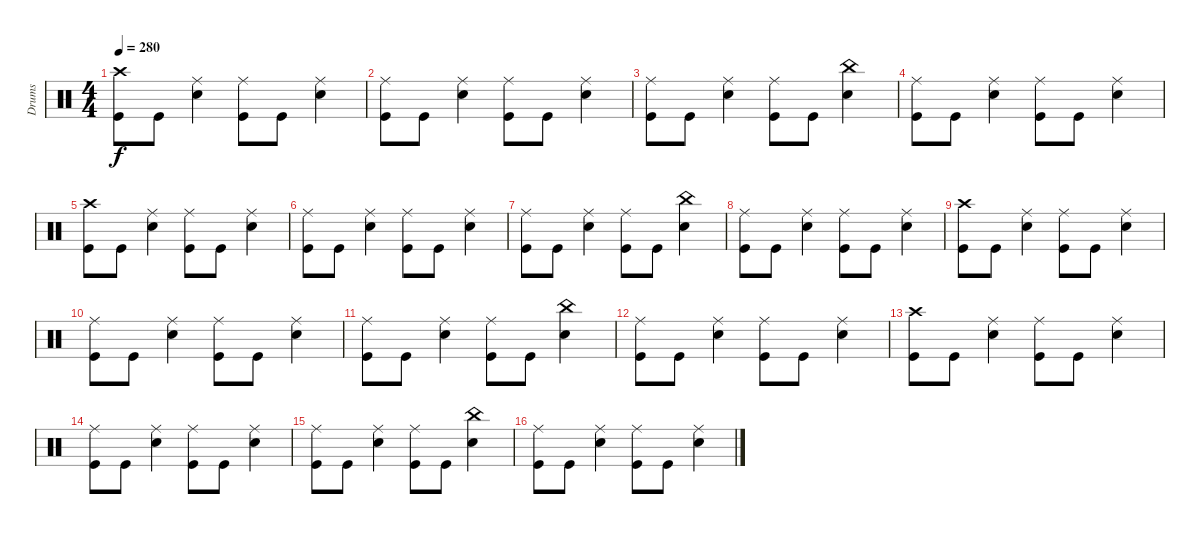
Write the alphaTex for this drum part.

\track ("Drums" "Drums") {instrument percussion}
\staff {score}
\articulation defaults
\ts (4 4)
\tempo 280
\clef neutral
\ks c
("Crash high (hit)" "Kick (hit)").8{dy f} "Kick (hit)".8 ("Ride (middle)" "Electric Snare (hit)").4 ("Ride (middle)" "Kick (hit)").8 "Kick (hit)".8 ("Ride (middle)" "Electric Snare (hit)").4 |
("Ride (middle)" "Kick (hit)").8 "Kick (hit)".8 ("Ride (middle)" "Electric Snare (hit)").4 ("Ride (middle)" "Kick (hit)").8 "Kick (hit)".8 ("Ride (middle)" "Electric Snare (hit)").4 |
("Ride (middle)" "Kick (hit)").8 "Kick (hit)".8 ("Ride (middle)" "Electric Snare (hit)").4 ("Ride (middle)" "Kick (hit)").8 "Kick (hit)".8 ("China (hit)" "Electric Snare (hit)").4 |
("Ride (middle)" "Kick (hit)").8 "Kick (hit)".8 ("Ride (middle)" "Electric Snare (hit)").4 ("Ride (middle)" "Kick (hit)").8 "Kick (hit)".8 ("Ride (middle)" "Electric Snare (hit)").4 |
("Crash high (hit)" "Kick (hit)").8 "Kick (hit)".8 ("Ride (middle)" "Electric Snare (hit)").4 ("Ride (middle)" "Kick (hit)").8 "Kick (hit)".8 ("Ride (middle)" "Electric Snare (hit)").4 |
("Ride (middle)" "Kick (hit)").8 "Kick (hit)".8 ("Ride (middle)" "Electric Snare (hit)").4 ("Ride (middle)" "Kick (hit)").8 "Kick (hit)".8 ("Ride (middle)" "Electric Snare (hit)").4 |
("Ride (middle)" "Kick (hit)").8 "Kick (hit)".8 ("Ride (middle)" "Electric Snare (hit)").4 ("Ride (middle)" "Kick (hit)").8 "Kick (hit)".8 ("China (hit)" "Electric Snare (hit)").4 |
("Ride (middle)" "Kick (hit)").8 "Kick (hit)".8 ("Ride (middle)" "Electric Snare (hit)").4 ("Ride (middle)" "Kick (hit)").8 "Kick (hit)".8 ("Ride (middle)" "Electric Snare (hit)").4 |
("Crash high (hit)" "Kick (hit)").8 "Kick (hit)".8 ("Ride (middle)" "Electric Snare (hit)").4 ("Ride (middle)" "Kick (hit)").8 "Kick (hit)".8 ("Ride (middle)" "Electric Snare (hit)").4 |
("Ride (middle)" "Kick (hit)").8 "Kick (hit)".8 ("Ride (middle)" "Electric Snare (hit)").4 ("Ride (middle)" "Kick (hit)").8 "Kick (hit)".8 ("Ride (middle)" "Electric Snare (hit)").4 |
("Ride (middle)" "Kick (hit)").8 "Kick (hit)".8 ("Ride (middle)" "Electric Snare (hit)").4 ("Ride (middle)" "Kick (hit)").8 "Kick (hit)".8 ("China (hit)" "Electric Snare (hit)").4 |
("Ride (middle)" "Kick (hit)").8 "Kick (hit)".8 ("Ride (middle)" "Electric Snare (hit)").4 ("Ride (middle)" "Kick (hit)").8 "Kick (hit)".8 ("Ride (middle)" "Electric Snare (hit)").4 |
("Crash high (hit)" "Kick (hit)").8 "Kick (hit)".8 ("Ride (middle)" "Electric Snare (hit)").4 ("Ride (middle)" "Kick (hit)").8 "Kick (hit)".8 ("Ride (middle)" "Electric Snare (hit)").4 |
("Ride (middle)" "Kick (hit)").8 "Kick (hit)".8 ("Ride (middle)" "Electric Snare (hit)").4 ("Ride (middle)" "Kick (hit)").8 "Kick (hit)".8 ("Ride (middle)" "Electric Snare (hit)").4 |
("Ride (middle)" "Kick (hit)").8 "Kick (hit)".8 ("Ride (middle)" "Electric Snare (hit)").4 ("Ride (middle)" "Kick (hit)").8 "Kick (hit)".8 ("China (hit)" "Electric Snare (hit)").4 |
("Ride (middle)" "Kick (hit)").8 "Kick (hit)".8 ("Ride (middle)" "Electric Snare (hit)").4 ("Ride (middle)" "Kick (hit)").8 "Kick (hit)".8 ("Ride (middle)" "Electric Snare (hit)").4
